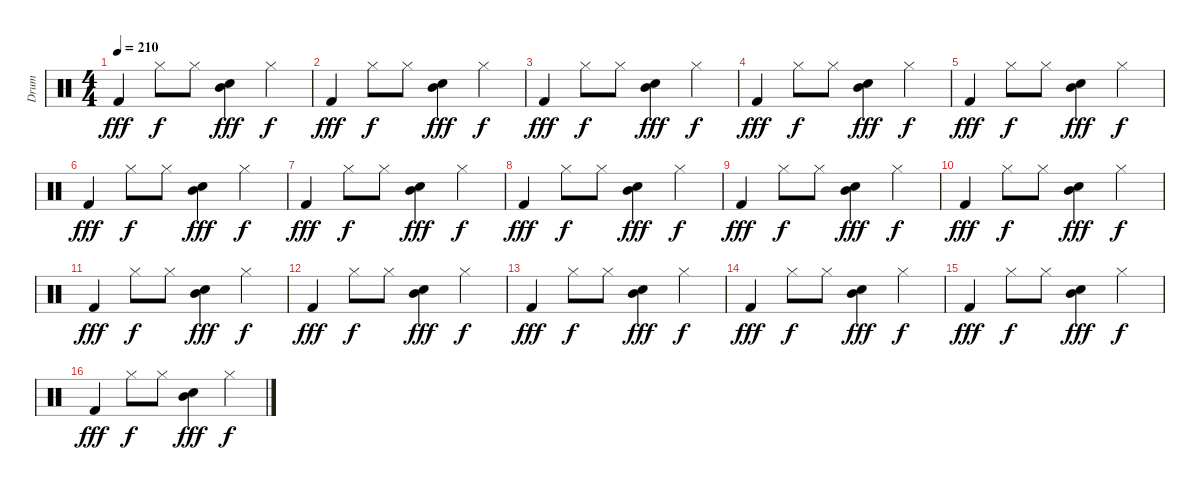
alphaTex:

\track ("Drum" "Drum") {instrument percussion}
\staff {score}
\articulation defaults
\ts (4 4)
\tempo 210
\clef neutral
\ks c "Kick (hit) 2".4{dy fff} "Hi-Hat (closed)".8{dy f} "Hi-Hat (closed)".8
("Snare (hit) 2" "Mid Tom (hit)").4{dy fff} "Hi-Hat (closed)".4{dy f} |
"Kick (hit) 2".4{dy fff} "Hi-Hat (closed)".8{dy f} "Hi-Hat (closed)".8 ("Snare (hit) 2" "Mid Tom (hit)").4{dy fff} "Hi-Hat (closed)".4{dy f} |
"Kick (hit) 2".4{dy fff} "Hi-Hat (closed)".8{dy f} "Hi-Hat (closed)".8 ("Snare (hit) 2" "Mid Tom (hit)").4{dy fff} "Hi-Hat (closed)".4{dy f} |
"Kick (hit) 2".4{dy fff} "Hi-Hat (closed)".8{dy f} "Hi-Hat (closed)".8 ("Snare (hit) 2" "Mid Tom (hit)").4{dy fff} "Hi-Hat (closed)".4{dy f} |
"Kick (hit) 2".4{dy fff} "Hi-Hat (closed)".8{dy f} "Hi-Hat (closed)".8 ("Snare (hit) 2" "Mid Tom (hit)").4{dy fff} "Hi-Hat (closed)".4{dy f} |
"Kick (hit) 2".4{dy fff} "Hi-Hat (closed)".8{dy f} "Hi-Hat (closed)".8 ("Snare (hit) 2" "Mid Tom (hit)").4{dy fff} "Hi-Hat (closed)".4{dy f} |
"Kick (hit) 2".4{dy fff} "Hi-Hat (closed)".8{dy f} "Hi-Hat (closed)".8 ("Snare (hit) 2" "Mid Tom (hit)").4{dy fff} "Hi-Hat (closed)".4{dy f} |
"Kick (hit) 2".4{dy fff} "Hi-Hat (closed)".8{dy f} "Hi-Hat (closed)".8 ("Snare (hit) 2" "Mid Tom (hit)").4{dy fff} "Hi-Hat (closed)".4{dy f} |
"Kick (hit) 2".4{dy fff} "Hi-Hat (closed)".8{dy f} "Hi-Hat (closed)".8 ("Snare (hit) 2" "Mid Tom (hit)").4{dy fff} "Hi-Hat (closed)".4{dy f} |
"Kick (hit) 2".4{dy fff} "Hi-Hat (closed)".8{dy f} "Hi-Hat (closed)".8 ("Snare (hit) 2" "Mid Tom (hit)").4{dy fff} "Hi-Hat (closed)".4{dy f} |
"Kick (hit) 2".4{dy fff} "Hi-Hat (closed)".8{dy f} "Hi-Hat (closed)".8 ("Snare (hit) 2" "Mid Tom (hit)").4{dy fff} "Hi-Hat (closed)".4{dy f} |
"Kick (hit) 2".4{dy fff} "Hi-Hat (closed)".8{dy f} "Hi-Hat (closed)".8 ("Snare (hit) 2" "Mid Tom (hit)").4{dy fff} "Hi-Hat (closed)".4{dy f} |
"Kick (hit) 2".4{dy fff} "Hi-Hat (closed)".8{dy f} "Hi-Hat (closed)".8 ("Snare (hit) 2" "Mid Tom (hit)").4{dy fff} "Hi-Hat (closed)".4{dy f} |
"Kick (hit) 2".4{dy fff} "Hi-Hat (closed)".8{dy f} "Hi-Hat (closed)".8 ("Snare (hit) 2" "Mid Tom (hit)").4{dy fff} "Hi-Hat (closed)".4{dy f} |
"Kick (hit) 2".4{dy fff} "Hi-Hat (closed)".8{dy f} "Hi-Hat (closed)".8 ("Snare (hit) 2" "Mid Tom (hit)").4{dy fff} "Hi-Hat (closed)".4{dy f} |
"Kick (hit) 2".4{dy fff} "Hi-Hat (closed)".8{dy f} "Hi-Hat (closed)".8 ("Snare (hit) 2" "Mid Tom (hit)").4{dy fff} "Hi-Hat (closed)".4{dy f}
